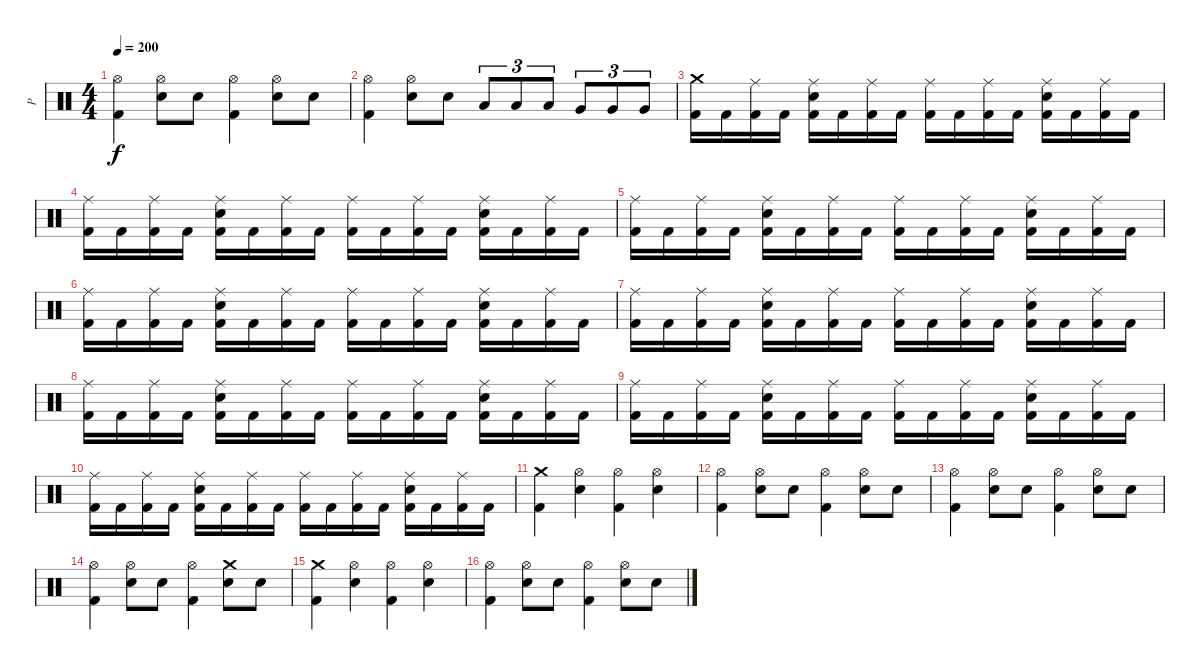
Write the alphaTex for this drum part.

\track ("P" "P") {instrument percussion}
\staff {score}
\articulation defaults
\ts (4 4)
\tempo 200
\clef neutral
\ks c
("Hi-Hat (open)" "Kick (hit) 2").4{dy f} ("Hi-Hat (open)" "Electric Snare (hit)").8 "Electric Snare (hit)".8 ("Hi-Hat (open)" "Kick (hit) 2").4 ("Hi-Hat (open)" "Electric Snare (hit)").8 "Electric Snare (hit)".8 |
("Hi-Hat (open)" "Kick (hit) 2").4 ("Hi-Hat (open)" "Electric Snare (hit)").8 "Electric Snare (hit)".8 "Low Tom (hit)".8{tu (3 2)} "Low Tom (hit)".8{tu (3 2)} "Low Tom (hit)".8{tu (3 2)} "Very Low Tom (hit)".8{tu (3 2)} "Very Low Tom (hit)".8{tu (3 2)} "Very Low Tom (hit)".8{tu (3 2)} |
("Crash medium (hit)" "Kick (hit) 2").16 "Kick (hit) 2".16 ("Ride (middle)" "Kick (hit) 2").16 "Kick (hit) 2".16 ("Ride (middle)" "Electric Snare (hit)" "Kick (hit) 2").16 "Kick (hit) 2".16 ("Ride (middle)" "Kick (hit) 2").16 "Kick (hit) 2".16 ("Ride (middle)" "Kick (hit) 2").16 "Kick (hit) 2".16 ("Ride (middle)" "Kick (hit) 2").16 "Kick (hit) 2".16 ("Ride (middle)" "Electric Snare (hit)" "Kick (hit) 2").16 "Kick (hit) 2".16 ("Ride (middle)" "Kick (hit) 2").16 "Kick (hit) 2".16 |
("Ride (middle)" "Kick (hit) 2").16 "Kick (hit) 2".16 ("Ride (middle)" "Kick (hit) 2").16 "Kick (hit) 2".16 ("Ride (middle)" "Electric Snare (hit)" "Kick (hit) 2").16 "Kick (hit) 2".16 ("Ride (middle)" "Kick (hit) 2").16 "Kick (hit) 2".16 ("Ride (middle)" "Kick (hit) 2").16 "Kick (hit) 2".16 ("Ride (middle)" "Kick (hit) 2").16 "Kick (hit) 2".16 ("Ride (middle)" "Electric Snare (hit)" "Kick (hit) 2").16 "Kick (hit) 2".16 ("Ride (middle)" "Kick (hit) 2").16 "Kick (hit) 2".16 |
("Ride (middle)" "Kick (hit) 2").16 "Kick (hit) 2".16 ("Ride (middle)" "Kick (hit) 2").16 "Kick (hit) 2".16 ("Ride (middle)" "Electric Snare (hit)" "Kick (hit) 2").16 "Kick (hit) 2".16 ("Ride (middle)" "Kick (hit) 2").16 "Kick (hit) 2".16 ("Ride (middle)" "Kick (hit) 2").16 "Kick (hit) 2".16 ("Ride (middle)" "Kick (hit) 2").16 "Kick (hit) 2".16 ("Ride (middle)" "Electric Snare (hit)" "Kick (hit) 2").16 "Kick (hit) 2".16 ("Ride (middle)" "Kick (hit) 2").16 "Kick (hit) 2".16 |
("Ride (middle)" "Kick (hit) 2").16 "Kick (hit) 2".16 ("Ride (middle)" "Kick (hit) 2").16 "Kick (hit) 2".16 ("Ride (middle)" "Electric Snare (hit)" "Kick (hit) 2").16 "Kick (hit) 2".16 ("Ride (middle)" "Kick (hit) 2").16 "Kick (hit) 2".16 ("Ride (middle)" "Kick (hit) 2").16 "Kick (hit) 2".16 ("Ride (middle)" "Kick (hit) 2").16 "Kick (hit) 2".16 ("Ride (middle)" "Electric Snare (hit)" "Kick (hit) 2").16 "Kick (hit) 2".16 ("Ride (middle)" "Kick (hit) 2").16 "Kick (hit) 2".16 |
("Ride (middle)" "Kick (hit) 2").16 "Kick (hit) 2".16 ("Ride (middle)" "Kick (hit) 2").16 "Kick (hit) 2".16 ("Ride (middle)" "Electric Snare (hit)" "Kick (hit) 2").16 "Kick (hit) 2".16 ("Ride (middle)" "Kick (hit) 2").16 "Kick (hit) 2".16 ("Ride (middle)" "Kick (hit) 2").16 "Kick (hit) 2".16 ("Ride (middle)" "Kick (hit) 2").16 "Kick (hit) 2".16 ("Ride (middle)" "Electric Snare (hit)" "Kick (hit) 2").16 "Kick (hit) 2".16 ("Ride (middle)" "Kick (hit) 2").16 "Kick (hit) 2".16 |
("Ride (middle)" "Kick (hit) 2").16 "Kick (hit) 2".16 ("Ride (middle)" "Kick (hit) 2").16 "Kick (hit) 2".16 ("Ride (middle)" "Electric Snare (hit)" "Kick (hit) 2").16 "Kick (hit) 2".16 ("Ride (middle)" "Kick (hit) 2").16 "Kick (hit) 2".16 ("Ride (middle)" "Kick (hit) 2").16 "Kick (hit) 2".16 ("Ride (middle)" "Kick (hit) 2").16 "Kick (hit) 2".16 ("Ride (middle)" "Electric Snare (hit)" "Kick (hit) 2").16 "Kick (hit) 2".16 ("Ride (middle)" "Kick (hit) 2").16 "Kick (hit) 2".16 |
("Ride (middle)" "Kick (hit) 2").16 "Kick (hit) 2".16 ("Ride (middle)" "Kick (hit) 2").16 "Kick (hit) 2".16 ("Ride (middle)" "Electric Snare (hit)" "Kick (hit) 2").16 "Kick (hit) 2".16 ("Ride (middle)" "Kick (hit) 2").16 "Kick (hit) 2".16 ("Ride (middle)" "Kick (hit) 2").16 "Kick (hit) 2".16 ("Ride (middle)" "Kick (hit) 2").16 "Kick (hit) 2".16 ("Ride (middle)" "Electric Snare (hit)" "Kick (hit) 2").16 "Kick (hit) 2".16 ("Ride (middle)" "Kick (hit) 2").16 "Kick (hit) 2".16 |
("Ride (middle)" "Kick (hit) 2").16 "Kick (hit) 2".16 ("Ride (middle)" "Kick (hit) 2").16 "Kick (hit) 2".16 ("Ride (middle)" "Electric Snare (hit)" "Kick (hit) 2").16 "Kick (hit) 2".16 ("Ride (middle)" "Kick (hit) 2").16 "Kick (hit) 2".16 ("Ride (middle)" "Kick (hit) 2").16 "Kick (hit) 2".16 ("Ride (middle)" "Kick (hit) 2").16 "Kick (hit) 2".16 ("Ride (middle)" "Electric Snare (hit)" "Kick (hit) 2").16 "Kick (hit) 2".16 ("Ride (middle)" "Kick (hit) 2").16 "Kick (hit) 2".16 |
("Crash medium (hit)" "Kick (hit) 2").4 ("Hi-Hat (open)" "Electric Snare (hit)").4 ("Hi-Hat (open)" "Kick (hit) 2").4 ("Hi-Hat (open)" "Electric Snare (hit)").4 |
("Hi-Hat (open)" "Kick (hit) 2").4 ("Hi-Hat (open)" "Electric Snare (hit)").8 "Electric Snare (hit)".8 ("Hi-Hat (open)" "Kick (hit) 2").4 ("Hi-Hat (open)" "Electric Snare (hit)").8 "Electric Snare (hit)".8 |
("Hi-Hat (open)" "Kick (hit) 2").4 ("Hi-Hat (open)" "Electric Snare (hit)").8 "Electric Snare (hit)".8 ("Hi-Hat (open)" "Kick (hit) 2").4 ("Hi-Hat (open)" "Electric Snare (hit)").8 "Electric Snare (hit)".8 |
("Hi-Hat (open)" "Kick (hit) 2").4 ("Hi-Hat (open)" "Electric Snare (hit)").8 "Electric Snare (hit)".8 ("Hi-Hat (open)" "Kick (hit) 2").4 ("Crash medium (hit)" "Electric Snare (hit)").8 "Electric Snare (hit)".8 |
("Crash medium (hit)" "Kick (hit) 2").4 ("Hi-Hat (open)" "Electric Snare (hit)").4 ("Hi-Hat (open)" "Kick (hit) 2").4 ("Hi-Hat (open)" "Electric Snare (hit)").4 |
("Hi-Hat (open)" "Kick (hit) 2").4 ("Hi-Hat (open)" "Electric Snare (hit)").8 "Electric Snare (hit)".8 ("Hi-Hat (open)" "Kick (hit) 2").4 ("Hi-Hat (open)" "Electric Snare (hit)").8 "Electric Snare (hit)".8
